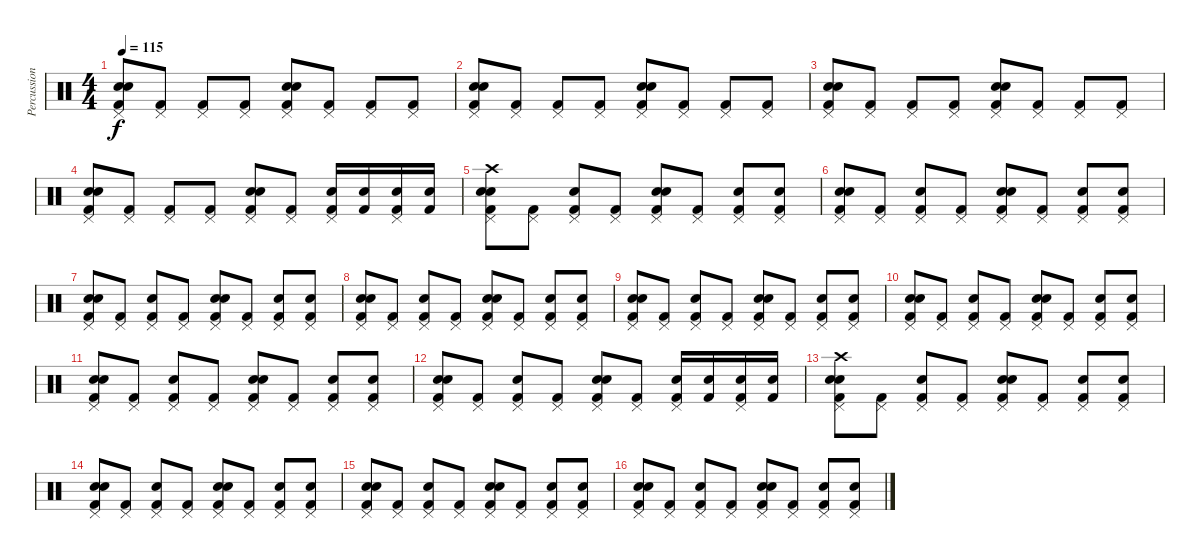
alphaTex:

\track ("Percussions" "Percussion") {instrument percussion}
\staff {score}
\articulation defaults
\ts (4 4)
\tempo 115
\clef neutral
\ks c
("Hand Clap (hit)" "Pedal Hi-Hat (hit)" "Snare (hit) 2" "Kick (hit) 2").8{dy f} ("Pedal Hi-Hat (hit)" "Kick (hit) 2").8 ("Pedal Hi-Hat (hit)" "Kick (hit) 2").8 ("Pedal Hi-Hat (hit)" "Kick (hit) 2").8 ("Hand Clap (hit)" "Pedal Hi-Hat (hit)" "Snare (hit) 2" "Kick (hit) 2").8 ("Pedal Hi-Hat (hit)" "Kick (hit) 2").8 ("Pedal Hi-Hat (hit)" "Kick (hit) 2").8 ("Pedal Hi-Hat (hit)" "Kick (hit) 2").8 |
("Hand Clap (hit)" "Pedal Hi-Hat (hit)" "Snare (hit) 2" "Kick (hit) 2").8 ("Pedal Hi-Hat (hit)" "Kick (hit) 2").8 ("Pedal Hi-Hat (hit)" "Kick (hit) 2").8 ("Pedal Hi-Hat (hit)" "Kick (hit) 2").8 ("Hand Clap (hit)" "Pedal Hi-Hat (hit)" "Snare (hit) 2" "Kick (hit) 2").8 ("Pedal Hi-Hat (hit)" "Kick (hit) 2").8 ("Pedal Hi-Hat (hit)" "Kick (hit) 2").8 ("Pedal Hi-Hat (hit)" "Kick (hit) 2").8 |
("Hand Clap (hit)" "Pedal Hi-Hat (hit)" "Snare (hit) 2" "Kick (hit) 2").8 ("Pedal Hi-Hat (hit)" "Kick (hit) 2").8 ("Pedal Hi-Hat (hit)" "Kick (hit) 2").8 ("Pedal Hi-Hat (hit)" "Kick (hit) 2").8 ("Hand Clap (hit)" "Pedal Hi-Hat (hit)" "Snare (hit) 2" "Kick (hit) 2").8 ("Pedal Hi-Hat (hit)" "Kick (hit) 2").8 ("Pedal Hi-Hat (hit)" "Kick (hit) 2").8 ("Pedal Hi-Hat (hit)" "Kick (hit) 2").8 |
("Hand Clap (hit)" "Pedal Hi-Hat (hit)" "Snare (hit) 2" "Kick (hit) 2").8 ("Pedal Hi-Hat (hit)" "Kick (hit) 2").8 ("Pedal Hi-Hat (hit)" "Kick (hit) 2").8 ("Pedal Hi-Hat (hit)" "Kick (hit) 2").8 ("Hand Clap (hit)" "Pedal Hi-Hat (hit)" "Snare (hit) 2" "Kick (hit) 2").8 ("Pedal Hi-Hat (hit)" "Kick (hit) 2").8 ("Pedal Hi-Hat (hit)" "Snare (hit) 2" "Kick (hit) 2").16 ("Snare (hit) 2" "Kick (hit) 2").16 ("Pedal Hi-Hat (hit)" "Snare (hit) 2" "Kick (hit) 2").16 ("Snare (hit) 2" "Kick (hit) 2").16 |
("Crash high (hit)" "Hand Clap (hit)" "Pedal Hi-Hat (hit)" "Snare (hit) 2" "Kick (hit) 2").8 ("Pedal Hi-Hat (hit)" "Kick (hit) 2").8 ("Pedal Hi-Hat (hit)" "Snare (hit) 2" "Kick (hit) 2").8 ("Pedal Hi-Hat (hit)" "Kick (hit) 2").8 ("Hand Clap (hit)" "Pedal Hi-Hat (hit)" "Snare (hit) 2" "Kick (hit) 2").8 ("Pedal Hi-Hat (hit)" "Kick (hit) 2").8 ("Pedal Hi-Hat (hit)" "Snare (hit) 2" "Kick (hit) 2").8 ("Pedal Hi-Hat (hit)" "Snare (hit) 2" "Kick (hit) 2").8 |
("Hand Clap (hit)" "Pedal Hi-Hat (hit)" "Snare (hit) 2" "Kick (hit) 2").8 ("Pedal Hi-Hat (hit)" "Kick (hit) 2").8 ("Pedal Hi-Hat (hit)" "Snare (hit) 2" "Kick (hit) 2").8 ("Pedal Hi-Hat (hit)" "Kick (hit) 2").8 ("Hand Clap (hit)" "Pedal Hi-Hat (hit)" "Snare (hit) 2" "Kick (hit) 2").8 ("Pedal Hi-Hat (hit)" "Kick (hit) 2").8 ("Pedal Hi-Hat (hit)" "Snare (hit) 2" "Kick (hit) 2").8 ("Pedal Hi-Hat (hit)" "Snare (hit) 2" "Kick (hit) 2").8 |
("Hand Clap (hit)" "Pedal Hi-Hat (hit)" "Snare (hit) 2" "Kick (hit) 2").8 ("Pedal Hi-Hat (hit)" "Kick (hit) 2").8 ("Pedal Hi-Hat (hit)" "Snare (hit) 2" "Kick (hit) 2").8 ("Pedal Hi-Hat (hit)" "Kick (hit) 2").8 ("Hand Clap (hit)" "Pedal Hi-Hat (hit)" "Snare (hit) 2" "Kick (hit) 2").8 ("Pedal Hi-Hat (hit)" "Kick (hit) 2").8 ("Pedal Hi-Hat (hit)" "Snare (hit) 2" "Kick (hit) 2").8 ("Pedal Hi-Hat (hit)" "Snare (hit) 2" "Kick (hit) 2").8 |
("Hand Clap (hit)" "Pedal Hi-Hat (hit)" "Snare (hit) 2" "Kick (hit) 2").8 ("Pedal Hi-Hat (hit)" "Kick (hit) 2").8 ("Pedal Hi-Hat (hit)" "Snare (hit) 2" "Kick (hit) 2").8 ("Pedal Hi-Hat (hit)" "Kick (hit) 2").8 ("Hand Clap (hit)" "Pedal Hi-Hat (hit)" "Snare (hit) 2" "Kick (hit) 2").8 ("Pedal Hi-Hat (hit)" "Kick (hit) 2").8 ("Pedal Hi-Hat (hit)" "Snare (hit) 2" "Kick (hit) 2").8 ("Pedal Hi-Hat (hit)" "Snare (hit) 2" "Kick (hit) 2").8 |
("Hand Clap (hit)" "Pedal Hi-Hat (hit)" "Snare (hit) 2" "Kick (hit) 2").8 ("Pedal Hi-Hat (hit)" "Kick (hit) 2").8 ("Pedal Hi-Hat (hit)" "Snare (hit) 2" "Kick (hit) 2").8 ("Pedal Hi-Hat (hit)" "Kick (hit) 2").8 ("Hand Clap (hit)" "Pedal Hi-Hat (hit)" "Snare (hit) 2" "Kick (hit) 2").8 ("Pedal Hi-Hat (hit)" "Kick (hit) 2").8 ("Pedal Hi-Hat (hit)" "Snare (hit) 2" "Kick (hit) 2").8 ("Pedal Hi-Hat (hit)" "Snare (hit) 2" "Kick (hit) 2").8 |
("Hand Clap (hit)" "Pedal Hi-Hat (hit)" "Snare (hit) 2" "Kick (hit) 2").8 ("Pedal Hi-Hat (hit)" "Kick (hit) 2").8 ("Pedal Hi-Hat (hit)" "Snare (hit) 2" "Kick (hit) 2").8 ("Pedal Hi-Hat (hit)" "Kick (hit) 2").8 ("Hand Clap (hit)" "Pedal Hi-Hat (hit)" "Snare (hit) 2" "Kick (hit) 2").8 ("Pedal Hi-Hat (hit)" "Kick (hit) 2").8 ("Pedal Hi-Hat (hit)" "Snare (hit) 2" "Kick (hit) 2").8 ("Pedal Hi-Hat (hit)" "Snare (hit) 2" "Kick (hit) 2").8 |
("Hand Clap (hit)" "Pedal Hi-Hat (hit)" "Snare (hit) 2" "Kick (hit) 2").8 ("Pedal Hi-Hat (hit)" "Kick (hit) 2").8 ("Pedal Hi-Hat (hit)" "Snare (hit) 2" "Kick (hit) 2").8 ("Pedal Hi-Hat (hit)" "Kick (hit) 2").8 ("Hand Clap (hit)" "Pedal Hi-Hat (hit)" "Snare (hit) 2" "Kick (hit) 2").8 ("Pedal Hi-Hat (hit)" "Kick (hit) 2").8 ("Pedal Hi-Hat (hit)" "Snare (hit) 2" "Kick (hit) 2").8 ("Pedal Hi-Hat (hit)" "Snare (hit) 2" "Kick (hit) 2").8 |
("Hand Clap (hit)" "Pedal Hi-Hat (hit)" "Snare (hit) 2" "Kick (hit) 2").8 ("Pedal Hi-Hat (hit)" "Kick (hit) 2").8 ("Pedal Hi-Hat (hit)" "Snare (hit) 2" "Kick (hit) 2").8 ("Pedal Hi-Hat (hit)" "Kick (hit) 2").8 ("Hand Clap (hit)" "Pedal Hi-Hat (hit)" "Snare (hit) 2" "Kick (hit) 2").8 ("Pedal Hi-Hat (hit)" "Kick (hit) 2").8 ("Pedal Hi-Hat (hit)" "Snare (hit) 2" "Kick (hit) 2").16 ("Snare (hit) 2" "Kick (hit) 2").16 ("Pedal Hi-Hat (hit)" "Snare (hit) 2" "Kick (hit) 2").16 ("Snare (hit) 2" "Kick (hit) 2").16 |
("Crash high (hit)" "Hand Clap (hit)" "Pedal Hi-Hat (hit)" "Snare (hit) 2" "Kick (hit) 2").8 ("Pedal Hi-Hat (hit)" "Kick (hit) 2").8 ("Pedal Hi-Hat (hit)" "Snare (hit) 2" "Kick (hit) 2").8 ("Pedal Hi-Hat (hit)" "Kick (hit) 2").8 ("Hand Clap (hit)" "Pedal Hi-Hat (hit)" "Snare (hit) 2" "Kick (hit) 2").8 ("Pedal Hi-Hat (hit)" "Kick (hit) 2").8 ("Pedal Hi-Hat (hit)" "Snare (hit) 2" "Kick (hit) 2").8 ("Pedal Hi-Hat (hit)" "Snare (hit) 2" "Kick (hit) 2").8 |
("Hand Clap (hit)" "Pedal Hi-Hat (hit)" "Snare (hit) 2" "Kick (hit) 2").8 ("Pedal Hi-Hat (hit)" "Kick (hit) 2").8 ("Pedal Hi-Hat (hit)" "Snare (hit) 2" "Kick (hit) 2").8 ("Pedal Hi-Hat (hit)" "Kick (hit) 2").8 ("Hand Clap (hit)" "Pedal Hi-Hat (hit)" "Snare (hit) 2" "Kick (hit) 2").8 ("Pedal Hi-Hat (hit)" "Kick (hit) 2").8 ("Pedal Hi-Hat (hit)" "Snare (hit) 2" "Kick (hit) 2").8 ("Pedal Hi-Hat (hit)" "Snare (hit) 2" "Kick (hit) 2").8 |
("Hand Clap (hit)" "Pedal Hi-Hat (hit)" "Snare (hit) 2" "Kick (hit) 2").8 ("Pedal Hi-Hat (hit)" "Kick (hit) 2").8 ("Pedal Hi-Hat (hit)" "Snare (hit) 2" "Kick (hit) 2").8 ("Pedal Hi-Hat (hit)" "Kick (hit) 2").8 ("Hand Clap (hit)" "Pedal Hi-Hat (hit)" "Snare (hit) 2" "Kick (hit) 2").8 ("Pedal Hi-Hat (hit)" "Kick (hit) 2").8 ("Pedal Hi-Hat (hit)" "Snare (hit) 2" "Kick (hit) 2").8 ("Pedal Hi-Hat (hit)" "Snare (hit) 2" "Kick (hit) 2").8 |
("Hand Clap (hit)" "Pedal Hi-Hat (hit)" "Snare (hit) 2" "Kick (hit) 2").8 ("Pedal Hi-Hat (hit)" "Kick (hit) 2").8 ("Pedal Hi-Hat (hit)" "Snare (hit) 2" "Kick (hit) 2").8 ("Pedal Hi-Hat (hit)" "Kick (hit) 2").8 ("Hand Clap (hit)" "Pedal Hi-Hat (hit)" "Snare (hit) 2" "Kick (hit) 2").8 ("Pedal Hi-Hat (hit)" "Kick (hit) 2").8 ("Pedal Hi-Hat (hit)" "Snare (hit) 2" "Kick (hit) 2").8 ("Pedal Hi-Hat (hit)" "Snare (hit) 2" "Kick (hit) 2").8
